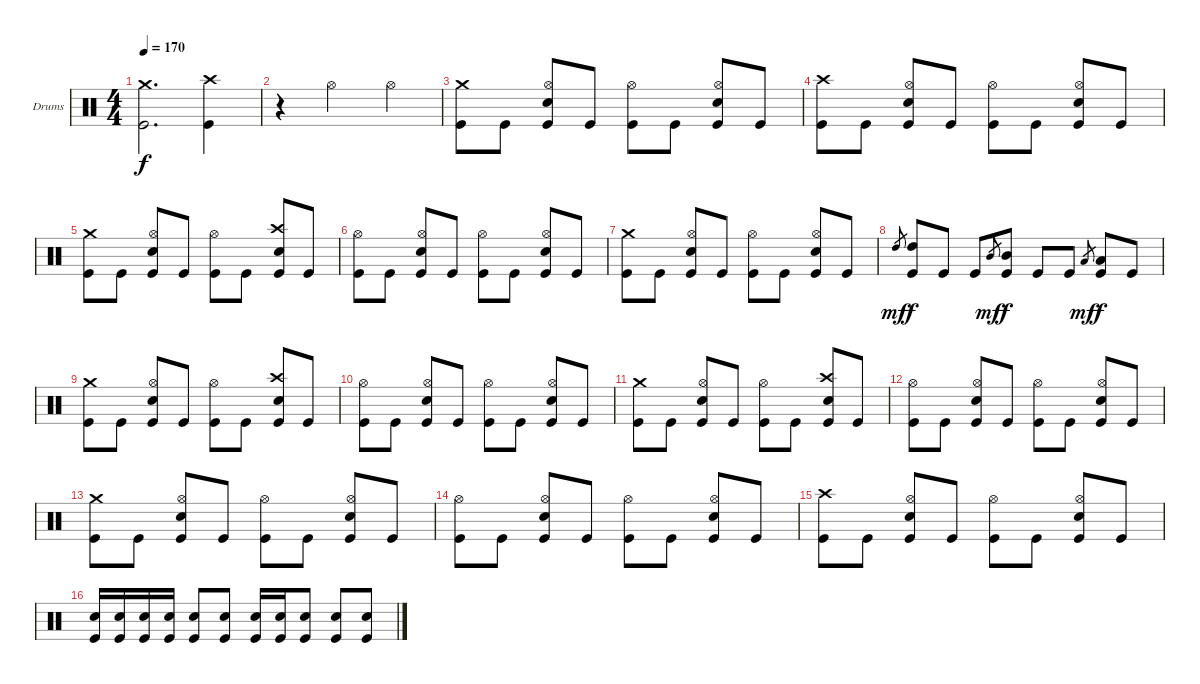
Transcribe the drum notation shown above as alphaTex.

\bracketExtendMode groupsimilarinstruments
\firstSystemTrackNameOrientation horizontal
\otherSystemsTrackNameOrientation horizontal
\track ("Дмитрий Кривенков" "Drums") {instrument percussion}
\staff {score}
\articulation defaults
\ts (4 4)
\tempo 170
\clef neutral
\ks c
("Crash medium (hit)" "Kick (hit)").2{d dy f} ("Crash high (hit)" "Kick (hit)").4 |
r.4 "Hi-Hat (open)".2 "Hi-Hat (open)".4 |
("Crash medium (hit)" "Kick (hit)").8 "Kick (hit)".8 ("Hi-Hat (open)" "Snare (hit) 2" "Kick (hit)").8 "Kick (hit)".8 ("Hi-Hat (open)" "Kick (hit)").8 "Kick (hit)".8 ("Hi-Hat (open)" "Snare (hit) 2" "Kick (hit)").8 "Kick (hit)".8 |
("Crash high (hit)" "Kick (hit)").8 "Kick (hit)".8 ("Hi-Hat (open)" "Snare (hit) 2" "Kick (hit)").8 "Kick (hit)".8 ("Hi-Hat (open)" "Kick (hit)").8 "Kick (hit)".8 ("Hi-Hat (open)" "Snare (hit) 2" "Kick (hit)").8 "Kick (hit)".8 |
("Crash medium (hit)" "Kick (hit)").8 "Kick (hit)".8 ("Hi-Hat (open)" "Snare (hit) 2" "Kick (hit)").8 "Kick (hit)".8 ("Hi-Hat (open)" "Kick (hit)").8 "Kick (hit)".8 ("Crash high (hit)" "Snare (hit) 2" "Kick (hit)").8 "Kick (hit)".8 |
("Hi-Hat (open)" "Kick (hit)").8 "Kick (hit)".8 ("Hi-Hat (open)" "Snare (hit) 2" "Kick (hit)").8 "Kick (hit)".8 ("Hi-Hat (open)" "Kick (hit)").8 "Kick (hit)".8 ("Hi-Hat (open)" "Snare (hit) 2" "Kick (hit)").8 "Kick (hit)".8 |
("Crash medium (hit)" "Kick (hit)").8 "Kick (hit)".8 ("Hi-Hat (open)" "Snare (hit) 2" "Kick (hit)").8 "Kick (hit)".8 ("Hi-Hat (open)" "Kick (hit)").8 "Kick (hit)".8 ("Hi-Hat (open)" "Snare (hit) 2" "Kick (hit)").8 "Kick (hit)".8 |
"High Tom (hit)".8{gr dy mf} ("High Tom (hit)" "Kick (hit)").8{dy f} "Kick (hit)".8 "Kick (hit)".8 "Mid Tom (hit)".8{gr dy mf} ("Mid Tom (hit)" "Kick (hit)").8{dy f} "Kick (hit)".8 "Kick (hit)".8 "Low Tom (hit)".8{gr dy mf} ("Low Tom (hit)" "Kick (hit)").8{dy f} "Kick (hit)".8 |
("Crash medium (hit)" "Kick (hit)").8 "Kick (hit)".8 ("Hi-Hat (open)" "Snare (hit) 2" "Kick (hit)").8 "Kick (hit)".8 ("Hi-Hat (open)" "Kick (hit)").8 "Kick (hit)".8 ("Crash high (hit)" "Snare (hit) 2" "Kick (hit)").8 "Kick (hit)".8 |
("Hi-Hat (open)" "Kick (hit)").8 "Kick (hit)".8 ("Hi-Hat (open)" "Snare (hit) 2" "Kick (hit)").8 "Kick (hit)".8 ("Hi-Hat (open)" "Kick (hit)").8 "Kick (hit)".8 ("Hi-Hat (open)" "Snare (hit) 2" "Kick (hit)").8 "Kick (hit)".8 |
("Crash medium (hit)" "Kick (hit)").8 "Kick (hit)".8 ("Hi-Hat (open)" "Snare (hit) 2" "Kick (hit)").8 "Kick (hit)".8 ("Hi-Hat (open)" "Kick (hit)").8 "Kick (hit)".8 ("Crash high (hit)" "Snare (hit) 2" "Kick (hit)").8 "Kick (hit)".8 |
("Hi-Hat (open)" "Kick (hit)").8 "Kick (hit)".8 ("Hi-Hat (open)" "Snare (hit) 2" "Kick (hit)").8 "Kick (hit)".8 ("Hi-Hat (open)" "Kick (hit)").8 "Kick (hit)".8 ("Hi-Hat (open)" "Snare (hit) 2" "Kick (hit)").8 "Kick (hit)".8 |
("Crash medium (hit)" "Kick (hit)").8 "Kick (hit)".8 ("Hi-Hat (open)" "Snare (hit) 2" "Kick (hit)").8 "Kick (hit)".8 ("Hi-Hat (open)" "Kick (hit)").8 "Kick (hit)".8 ("Hi-Hat (open)" "Snare (hit) 2" "Kick (hit)").8 "Kick (hit)".8 |
("Hi-Hat (open)" "Kick (hit)").8 "Kick (hit)".8 ("Hi-Hat (open)" "Snare (hit) 2" "Kick (hit)").8 "Kick (hit)".8 ("Hi-Hat (open)" "Kick (hit)").8 "Kick (hit)".8 ("Hi-Hat (open)" "Snare (hit) 2" "Kick (hit)").8 "Kick (hit)".8 |
("Crash high (hit)" "Kick (hit)").8 "Kick (hit)".8 ("Hi-Hat (open)" "Snare (hit) 2" "Kick (hit)").8 "Kick (hit)".8 ("Hi-Hat (open)" "Kick (hit)").8 "Kick (hit)".8 ("Hi-Hat (open)" "Snare (hit) 2" "Kick (hit)").8 "Kick (hit)".8 |
("Snare (hit) 2" "Kick (hit)").16 ("Snare (hit) 2" "Kick (hit)").16 ("Snare (hit) 2" "Kick (hit)").16 ("Snare (hit) 2" "Kick (hit)").16 ("Snare (hit) 2" "Kick (hit)").8 ("Snare (hit) 2" "Kick (hit)").8 ("Snare (hit) 2" "Kick (hit)").16 ("Snare (hit) 2" "Kick (hit)").16 ("Snare (hit) 2" "Kick (hit)").8 ("Snare (hit) 2" "Kick (hit)").8 ("Snare (hit) 2" "Kick (hit)").8
